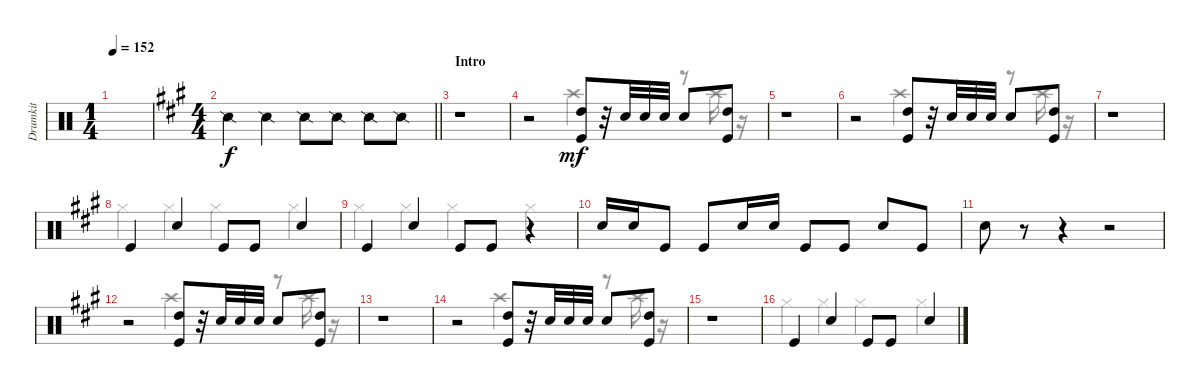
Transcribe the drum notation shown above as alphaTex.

\track ("Drumkit" "Drumkit") {instrument percussion}
\staff {score}
\articulation defaults
\voice
\ts (1 4)
\tempo 152
\clef neutral
\ks c
|
\ts (4 4)
\barLineRight lightlight
\ks a "Snare (side stick) 2".4 "Snare (side stick) 2".4 "Snare (side stick) 2".8 "Snare (side stick) 2".8 "Snare (side stick) 2".8 "Snare (side stick) 2".8
|
\section ("" "Intro")
r.1 |
r.2 ("Kick (hit)" "High Tom (hit)").8{dy mf} r.32 "Snare (hit) 2".32 "Snare (hit) 2".32 "Snare (hit) 2".32 "Snare (hit) 2".8 ("Kick (hit)" "High Tom (hit)").8 |
r.1 |
r.2 ("Kick (hit)" "High Tom (hit)").8 r.32 "Snare (hit) 2".32 "Snare (hit) 2".32 "Snare (hit) 2".32 "Snare (hit) 2".8 ("Kick (hit)" "High Tom (hit)").8 |
r.1 |
"Kick (hit)".4 "Snare (hit) 2".4 "Kick (hit)".8 "Kick (hit)".8 "Snare (hit) 2".4 |
"Kick (hit)".4 "Snare (hit) 2".4 "Kick (hit)".8 "Kick (hit)".8 r.4 |
"Snare (hit) 2".16 "Snare (hit) 2".16 "Kick (hit)".8 "Kick (hit)".8 "Snare (hit) 2".16 "Snare (hit) 2".16 "Kick (hit)".8 "Kick (hit)".8 "Snare (hit) 2".8 "Kick (hit)".8 |
"Snare (hit) 2".8 r.8 r.4 r.2 |
r.2 ("Kick (hit)" "High Tom (hit)").8 r.32 "Snare (hit) 2".32 "Snare (hit) 2".32 "Snare (hit) 2".32 "Snare (hit) 2".8 ("Kick (hit)" "High Tom (hit)").8 |
r.1 |
r.2 ("Kick (hit)" "High Tom (hit)").8 r.32 "Snare (hit) 2".32 "Snare (hit) 2".32 "Snare (hit) 2".32 "Snare (hit) 2".8 ("Kick (hit)" "High Tom (hit)").8 |
r.1 |
"Kick (hit)".4 "Snare (hit) 2".4 "Kick (hit)".8 "Kick (hit)".8 "Snare (hit) 2".4
\voice
\clef neutral
\ottava regular
\simile none
\ks c
|
\barLineRight lightlight
\ks a
|
|
r.2 "Crash high (hit)".4 r.8 "Crash high (hit)".16 r.16 |
|
r.2 "Crash high (hit)".4 r.8 "Crash high (hit)".16 r.16 |
|
"Hi-Hat (closed)".4 "Hi-Hat (closed)".4 "Hi-Hat (closed)".4 "Hi-Hat (closed)".4 |
"Hi-Hat (closed)".4 "Hi-Hat (closed)".4 "Hi-Hat (closed)".4 "Hi-Hat (closed)".4 |
|
|
r.2 "Crash high (hit)".4 r.8 "Crash high (hit)".16 r.16 |
|
r.2 "Crash high (hit)".4 r.8 "Crash high (hit)".16 r.16 |
|
"Hi-Hat (closed)".4 "Hi-Hat (closed)".4 "Hi-Hat (closed)".4 "Hi-Hat (closed)".4
